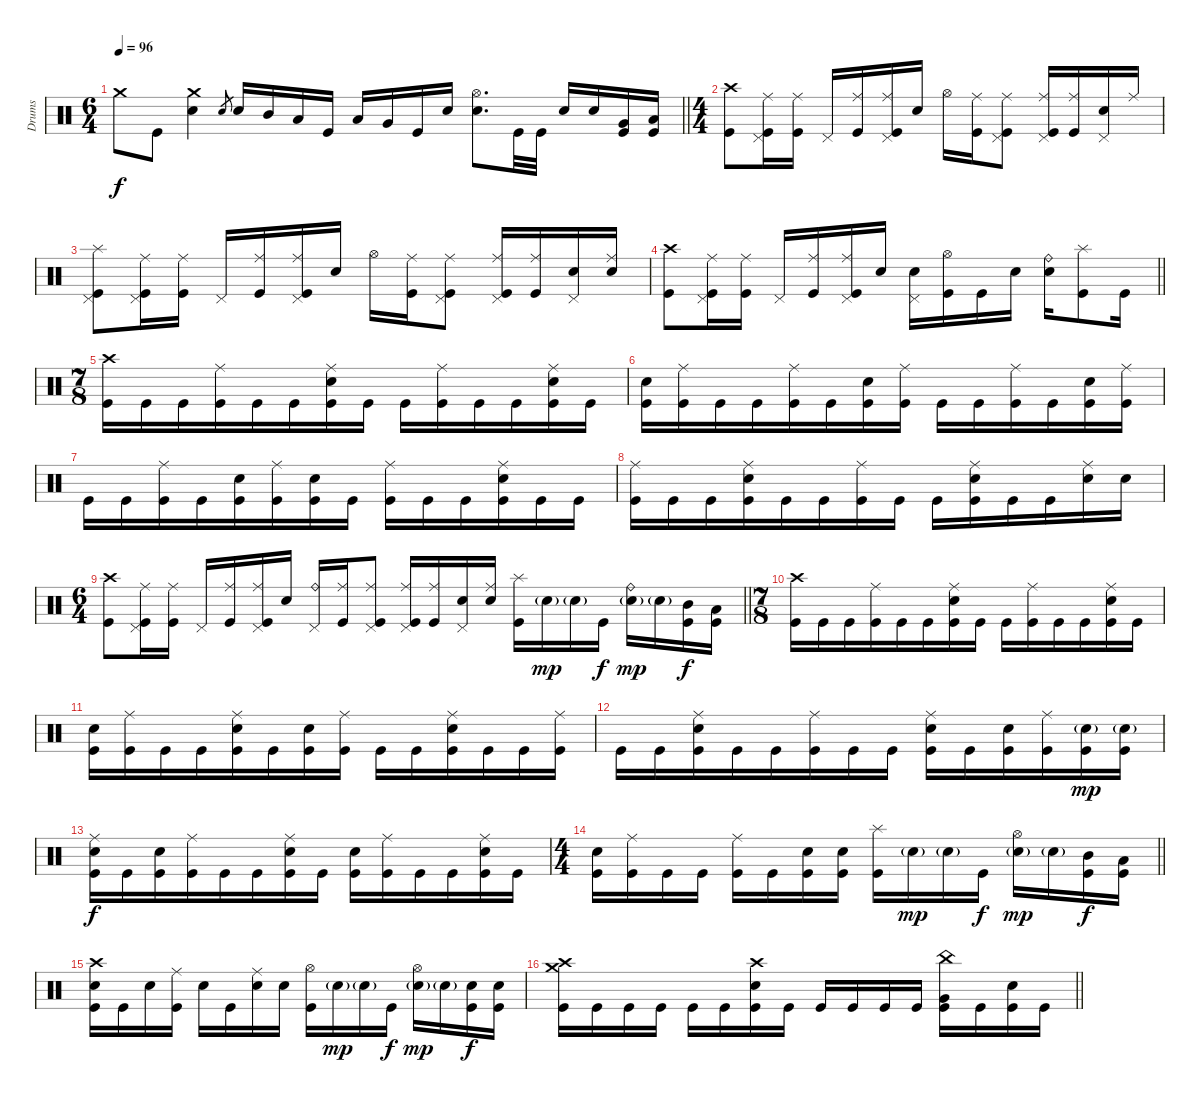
\track ("Drums" "Drums") {instrument percussion}
\staff
\articulation defaults
\ts (6 4)
\tempo 96
\clef neutral
\barLineRight lightlight
\ks c "Crash medium (hit)".8{dy f} "Kick (hit)".8
("Crash medium (hit)" "Electric Snare (hit)").4 "Electric Snare (hit)".8{gr} "Electric Snare (hit)".16 "Mid Tom (hit)".16 "Low Tom (hit)".16 "Kick (hit)".16 "Low Tom (hit)".16 "Very Low Tom (hit)".16 "Kick (hit)".16 "Electric Snare (hit)".16 ("Hi-Hat (open)" "Electric Snare (hit)").8{d} "Kick (hit)".32 "Kick (hit)".32 "Electric Snare (hit)".16 "Electric Snare (hit)".16 ("Very Low Tom (hit)" "Kick (hit)").16 ("Low Floor Tom (hit)" "Kick (hit)").16 |
\ts (4 4)
\section ("" "")
("Crash high (hit)" "Kick (hit)").8 ("Ride (middle)" "Pedal Hi-Hat (hit)" "Kick (hit)").16 ("Ride (middle)" "Kick (hit)").16 "Pedal Hi-Hat (hit)".16 ("Ride (middle)" "Kick (hit)").16 ("Ride (middle)" "Pedal Hi-Hat (hit)" "Kick (hit)").16 "Electric Snare (hit)".16 "Hi-Hat (open)".16 ("Ride (middle)" "Kick (hit)").16 ("Ride (middle)" "Pedal Hi-Hat (hit)" "Kick (hit)").8 ("Ride (middle)" "Pedal Hi-Hat (hit)" "Kick (hit)").16 ("Ride (middle)" "Kick (hit)").16 ("Pedal Hi-Hat (hit)" "Electric Snare (hit)").16 "Ride (middle)".16 |
("Splash (hit)" "Pedal Hi-Hat (hit)" "Kick (hit)").8 ("Ride (middle)" "Pedal Hi-Hat (hit)" "Kick (hit)").16 ("Ride (middle)" "Kick (hit)").16 "Pedal Hi-Hat (hit)".16 ("Ride (middle)" "Kick (hit)").16 ("Ride (middle)" "Pedal Hi-Hat (hit)" "Kick (hit)").16 "Electric Snare (hit)".16 "Hi-Hat (open)".16 ("Ride (middle)" "Kick (hit)").16 ("Ride (middle)" "Pedal Hi-Hat (hit)" "Kick (hit)").8 ("Ride (middle)" "Pedal Hi-Hat (hit)" "Kick (hit)").16 ("Ride (middle)" "Kick (hit)").16 ("Pedal Hi-Hat (hit)" "Electric Snare (hit)").16 ("Ride (middle)" "Electric Snare (hit)").16 |
\barLineRight lightlight
("Crash high (hit)" "Kick (hit)").8 ("Ride (middle)" "Pedal Hi-Hat (hit)" "Kick (hit)").16 ("Ride (middle)" "Kick (hit)").16 "Pedal Hi-Hat (hit)".16 ("Ride (middle)" "Kick (hit)").16 ("Ride (middle)" "Pedal Hi-Hat (hit)" "Kick (hit)").16 "Electric Snare (hit)".16 ("Pedal Hi-Hat (hit)" "Electric Snare (hit)").16 ("Hi-Hat (open)" "Kick (hit)").16 "Kick (hit)".16 "Electric Snare (hit)".16 ("Ride (bell)" "Electric Snare (hit)").16 ("Splash (hit)" "Kick (hit)").8 "Kick (hit)".16 |
\ts (7 8)
("Crash high (hit)" "Kick (hit)").16 "Kick (hit)".16 "Kick (hit)".16 ("Ride (middle)" "Kick (hit)").16 "Kick (hit)".16 "Kick (hit)".16 ("Ride (middle)" "Electric Snare (hit)" "Kick (hit)").16 "Kick (hit)".16 "Kick (hit)".16 ("Ride (middle)" "Kick (hit)").16 "Kick (hit)".16 "Kick (hit)".16 ("Ride (middle)" "Electric Snare (hit)" "Kick (hit)").16 "Kick (hit)".16 |
("Electric Snare (hit)" "Kick (hit)").16 ("Ride (middle)" "Kick (hit)").16 "Kick (hit)".16 "Kick (hit)".16 ("Ride (middle)" "Kick (hit)").16 "Kick (hit)".16 ("Electric Snare (hit)" "Kick (hit)").16 ("Ride (middle)" "Kick (hit)").16 "Kick (hit)".16 "Kick (hit)".16 ("Ride (middle)" "Kick (hit)").16 "Kick (hit)".16 ("Electric Snare (hit)" "Kick (hit)").16 ("Ride (middle)" "Kick (hit)").16 |
"Kick (hit)".16 "Kick (hit)".16 ("Ride (middle)" "Kick (hit)").16 "Kick (hit)".16 ("Electric Snare (hit)" "Kick (hit)").16 ("Ride (middle)" "Kick (hit)").16 ("Electric Snare (hit)" "Kick (hit)").16 "Kick (hit)".16 ("Ride (middle)" "Kick (hit)").16 "Kick (hit)".16 "Kick (hit)".16 ("Ride (middle)" "Electric Snare (hit)" "Kick (hit)").16 "Kick (hit)".16 "Kick (hit)".16 |
("Ride (middle)" "Kick (hit)").16 "Kick (hit)".16 "Kick (hit)".16 ("Ride (middle)" "Electric Snare (hit)" "Kick (hit)").16 "Kick (hit)".16 "Kick (hit)".16 ("Ride (middle)" "Kick (hit)").16 "Kick (hit)".16 "Kick (hit)".16 ("Ride (middle)" "Electric Snare (hit)" "Kick (hit)").16 "Kick (hit)".16 "Kick (hit)".16 ("Ride (middle)" "Electric Snare (hit)").16 "Electric Snare (hit)".16 |
\ts (6 4)
\barLineRight lightlight
("Crash high (hit)" "Kick (hit)").8 ("Ride (middle)" "Pedal Hi-Hat (hit)" "Kick (hit)").16 ("Ride (middle)" "Kick (hit)").16 "Pedal Hi-Hat (hit)".16 ("Ride (middle)" "Kick (hit)").16 ("Ride (middle)" "Pedal Hi-Hat (hit)" "Kick (hit)").16 "Electric Snare (hit)".16 ("Ride (bell)" "Pedal Hi-Hat (hit)").16 ("Ride (middle)" "Kick (hit)").16 ("Ride (middle)" "Pedal Hi-Hat (hit)" "Kick (hit)").8 ("Ride (middle)" "Pedal Hi-Hat (hit)" "Kick (hit)").16 ("Ride (middle)" "Kick (hit)").16 ("Pedal Hi-Hat (hit)" "Electric Snare (hit)").16 ("Ride (middle)" "Electric Snare (hit)").16 ("Splash (hit)" "Kick (hit)").16 "Electric Snare (hit)"{g}.16{dy mp} "Electric Snare (hit)"{g}.16 "Kick (hit)".16{dy f} ("Ride (bell)" "Electric Snare (hit)"{g}).16{dy mp} "Electric Snare (hit)"{g}.16 ("Mid Tom (hit)" "Kick (hit)").16{dy f} ("Low Tom (hit)" "Kick (hit)").16 |
\ts (7 8)
("Crash high (hit)" "Kick (hit)").16 "Kick (hit)".16 "Kick (hit)".16 ("Ride (middle)" "Kick (hit)").16 "Kick (hit)".16 "Kick (hit)".16 ("Ride (middle)" "Electric Snare (hit)" "Kick (hit)").16 "Kick (hit)".16 "Kick (hit)".16 ("Ride (middle)" "Kick (hit)").16 "Kick (hit)".16 "Kick (hit)".16 ("Ride (middle)" "Electric Snare (hit)" "Kick (hit)").16 "Kick (hit)".16 |
("Electric Snare (hit)" "Kick (hit)").16 ("Ride (middle)" "Kick (hit)").16 "Kick (hit)".16 "Kick (hit)".16 ("Ride (middle)" "Electric Snare (hit)" "Kick (hit)").16 "Kick (hit)".16 ("Electric Snare (hit)" "Kick (hit)").16 ("Ride (middle)" "Kick (hit)").16 "Kick (hit)".16 "Kick (hit)".16 ("Ride (middle)" "Electric Snare (hit)" "Kick (hit)").16 "Kick (hit)".16 "Kick (hit)".16 ("Ride (middle)" "Kick (hit)").16 |
"Kick (hit)".16 "Kick (hit)".16 ("Ride (middle)" "Electric Snare (hit)" "Kick (hit)").16 "Kick (hit)".16 "Kick (hit)".16 ("Ride (middle)" "Kick (hit)").16 "Kick (hit)".16 "Kick (hit)".16 ("Ride (middle)" "Electric Snare (hit)" "Kick (hit)").16 "Kick (hit)".16 ("Electric Snare (hit)" "Kick (hit)").16 ("Ride (middle)" "Kick (hit)").16 ("Electric Snare (hit)"{g} "Kick (hit)").16{dy mp} ("Electric Snare (hit)"{g} "Kick (hit)").16 |
("Ride (middle)" "Electric Snare (hit)" "Kick (hit)").16{dy f} "Kick (hit)".16 ("Electric Snare (hit)" "Kick (hit)").16 ("Ride (middle)" "Kick (hit)").16 "Kick (hit)".16 "Kick (hit)".16 ("Ride (middle)" "Electric Snare (hit)" "Kick (hit)").16 "Kick (hit)".16 ("Electric Snare (hit)" "Kick (hit)").16 ("Ride (middle)" "Kick (hit)").16 "Kick (hit)".16 "Kick (hit)".16 ("Ride (middle)" "Electric Snare (hit)" "Kick (hit)").16 "Kick (hit)".16 |
\ts (4 4)
\barLineRight lightlight
("Electric Snare (hit)" "Kick (hit)").16 ("Ride (middle)" "Kick (hit)").16 "Kick (hit)".16 "Kick (hit)".16 ("Ride (middle)" "Kick (hit)").16 "Kick (hit)".16 ("Electric Snare (hit)" "Kick (hit)").16 ("Electric Snare (hit)" "Kick (hit)").16 ("Splash (hit)" "Kick (hit)").16 "Electric Snare (hit)"{g}.16{dy mp} "Electric Snare (hit)"{g}.16 "Kick (hit)".16{dy f} ("Hi-Hat (open)" "Electric Snare (hit)"{g}).16{dy mp} "Electric Snare (hit)"{g}.16 ("Mid Tom (hit)" "Kick (hit)").16{dy f} ("Low Tom (hit)" "Kick (hit)").16 |
("Crash high (hit)" "Electric Snare (hit)" "Kick (hit)").16 "Kick (hit)".16 "Electric Snare (hit)".16 ("Ride (middle)" "Kick (hit)").16 "Electric Snare (hit)".16 "Kick (hit)".16 ("Ride (middle)" "Electric Snare (hit)").16 "Electric Snare (hit)".16 ("Hi-Hat (open)" "Kick (hit)").16 "Electric Snare (hit)"{g}.16{dy mp} "Electric Snare (hit)"{g}.16 "Kick (hit)".16{dy f} ("Hi-Hat (open)" "Electric Snare (hit)"{g}).16{dy mp} "Electric Snare (hit)"{g}.16 ("Electric Snare (hit)" "Kick (hit)").16{dy f} ("Electric Snare (hit)" "Kick (hit)").16 |
\barLineRight lightlight
("Crash high (hit)" "Crash medium (hit)" "Kick (hit)").16 "Kick (hit)".16 "Kick (hit)".16 "Kick (hit)".16 "Kick (hit)".16 "Kick (hit)".16 ("Crash high (hit)" "Electric Snare (hit)" "Kick (hit)").16 "Kick (hit)".16 "Kick (hit)".16 "Kick (hit)".16 "Kick (hit)".16 "Kick (hit)".16 ("China (hit)" "Very Low Tom (hit)" "Kick (hit)").16 "Kick (hit)".16 ("Electric Snare (hit)" "Kick (hit)").16 "Kick (hit)".16
